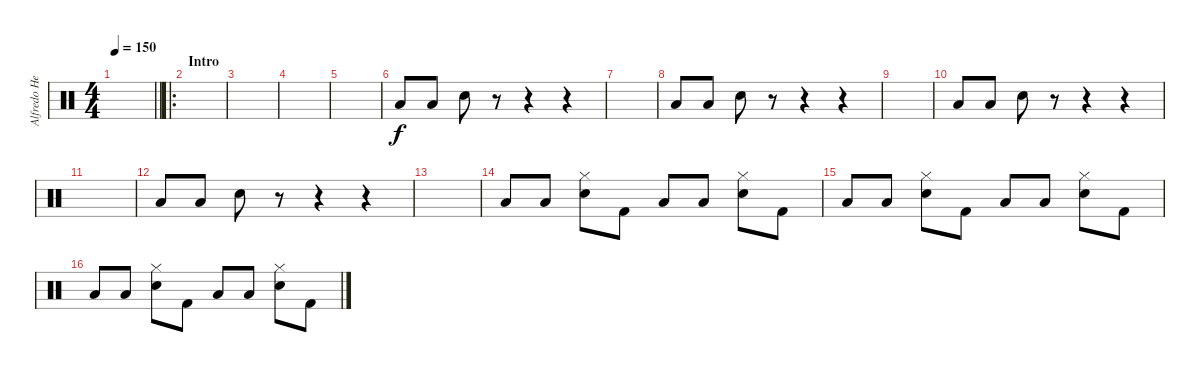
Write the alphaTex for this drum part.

\track ("Alfredo Hernandez" "Alfredo He") {instrument percussion}
\staff {score}
\articulation defaults
\ts (4 4)
\tempo 150
\clef neutral
\barLineRight lightlight
\ks c
|
\ro
\section ("" "Intro")
|
|
|
|
"Low Tom (hit)".8 "Low Tom (hit)".8 "Snare (hit) 2".8 r.8 r.4 r.4 |
|
"Low Tom (hit)".8 "Low Tom (hit)".8 "Snare (hit) 2".8 r.8 r.4 r.4 |
|
"Low Tom (hit)".8 "Low Tom (hit)".8 "Snare (hit) 2".8 r.8 r.4 r.4 |
|
"Low Tom (hit)".8 "Low Tom (hit)".8 "Snare (hit) 2".8 r.8 r.4 r.4 |
|
"Low Tom (hit)".8 "Low Tom (hit)".8 ("Snare (hit) 2" "Hi-Hat (closed)").8 "Kick (hit) 2".8 "Low Tom (hit)".8 "Low Tom (hit)".8 ("Snare (hit) 2" "Hi-Hat (closed)").8 "Kick (hit) 2".8 |
"Low Tom (hit)".8 "Low Tom (hit)".8 ("Snare (hit) 2" "Hi-Hat (closed)").8 "Kick (hit) 2".8 "Low Tom (hit)".8 "Low Tom (hit)".8 ("Snare (hit) 2" "Hi-Hat (closed)").8 "Kick (hit) 2".8 |
"Low Tom (hit)".8 "Low Tom (hit)".8 ("Snare (hit) 2" "Hi-Hat (closed)").8 "Kick (hit) 2".8 "Low Tom (hit)".8 "Low Tom (hit)".8 ("Snare (hit) 2" "Hi-Hat (closed)").8 "Kick (hit) 2".8
